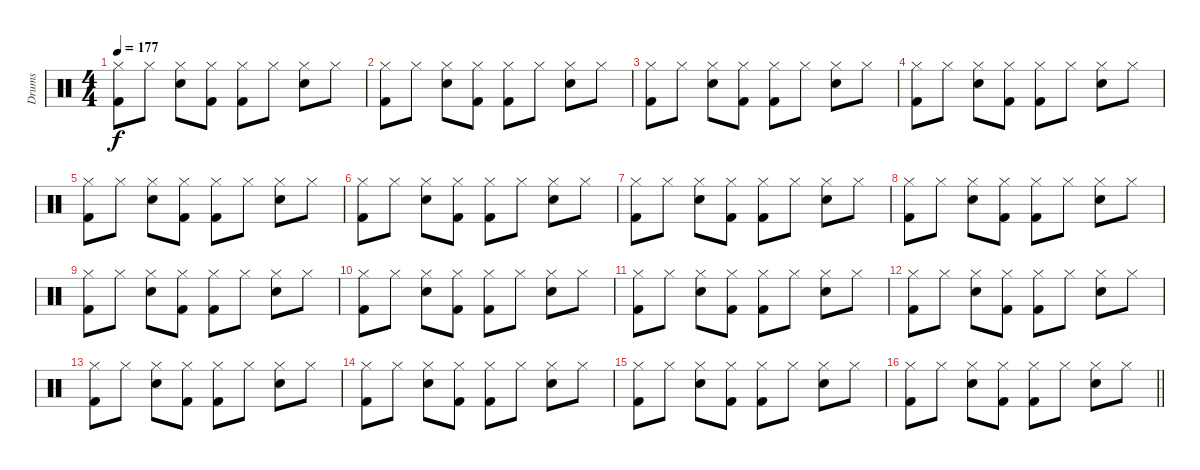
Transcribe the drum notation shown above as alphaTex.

\track ("Drums" "Drums") {instrument percussion}
\staff {score}
\articulation defaults
\ts (4 4)
\tempo 177
\clef neutral
\ks c
("Hi-Hat (closed)" "Kick (hit) 2").8{dy f} "Hi-Hat (closed)".8 ("Hi-Hat (closed)" "Snare (hit) 2").8 ("Hi-Hat (closed)" "Kick (hit) 2").8 ("Hi-Hat (closed)" "Kick (hit) 2").8 "Hi-Hat (closed)".8 ("Hi-Hat (closed)" "Snare (hit) 2").8 "Hi-Hat (closed)".8 |
("Hi-Hat (closed)" "Kick (hit) 2").8 "Hi-Hat (closed)".8 ("Hi-Hat (closed)" "Snare (hit) 2").8 ("Hi-Hat (closed)" "Kick (hit) 2").8 ("Hi-Hat (closed)" "Kick (hit) 2").8 "Hi-Hat (closed)".8 ("Hi-Hat (closed)" "Snare (hit) 2").8 "Hi-Hat (closed)".8 |
("Hi-Hat (closed)" "Kick (hit) 2").8 "Hi-Hat (closed)".8 ("Hi-Hat (closed)" "Snare (hit) 2").8 ("Hi-Hat (closed)" "Kick (hit) 2").8 ("Hi-Hat (closed)" "Kick (hit) 2").8 "Hi-Hat (closed)".8 ("Hi-Hat (closed)" "Snare (hit) 2").8 "Hi-Hat (closed)".8 |
("Hi-Hat (closed)" "Kick (hit) 2").8 "Hi-Hat (closed)".8 ("Hi-Hat (closed)" "Snare (hit) 2").8 ("Hi-Hat (closed)" "Kick (hit) 2").8 ("Hi-Hat (closed)" "Kick (hit) 2").8 "Hi-Hat (closed)".8 ("Hi-Hat (closed)" "Snare (hit) 2").8 "Hi-Hat (closed)".8 |
("Hi-Hat (closed)" "Kick (hit) 2").8 "Hi-Hat (closed)".8 ("Hi-Hat (closed)" "Snare (hit) 2").8 ("Hi-Hat (closed)" "Kick (hit) 2").8 ("Hi-Hat (closed)" "Kick (hit) 2").8 "Hi-Hat (closed)".8 ("Hi-Hat (closed)" "Snare (hit) 2").8 "Hi-Hat (closed)".8 |
("Hi-Hat (closed)" "Kick (hit) 2").8 "Hi-Hat (closed)".8 ("Hi-Hat (closed)" "Snare (hit) 2").8 ("Hi-Hat (closed)" "Kick (hit) 2").8 ("Hi-Hat (closed)" "Kick (hit) 2").8 "Hi-Hat (closed)".8 ("Hi-Hat (closed)" "Snare (hit) 2").8 "Hi-Hat (closed)".8 |
("Hi-Hat (closed)" "Kick (hit) 2").8 "Hi-Hat (closed)".8 ("Hi-Hat (closed)" "Snare (hit) 2").8 ("Hi-Hat (closed)" "Kick (hit) 2").8 ("Hi-Hat (closed)" "Kick (hit) 2").8 "Hi-Hat (closed)".8 ("Hi-Hat (closed)" "Snare (hit) 2").8 "Hi-Hat (closed)".8 |
("Hi-Hat (closed)" "Kick (hit) 2").8 "Hi-Hat (closed)".8 ("Hi-Hat (closed)" "Snare (hit) 2").8 ("Hi-Hat (closed)" "Kick (hit) 2").8 ("Hi-Hat (closed)" "Kick (hit) 2").8 "Hi-Hat (closed)".8 ("Hi-Hat (closed)" "Snare (hit) 2").8 "Hi-Hat (closed)".8 |
("Hi-Hat (closed)" "Kick (hit) 2").8 "Hi-Hat (closed)".8 ("Hi-Hat (closed)" "Snare (hit) 2").8 ("Hi-Hat (closed)" "Kick (hit) 2").8 ("Hi-Hat (closed)" "Kick (hit) 2").8 "Hi-Hat (closed)".8 ("Hi-Hat (closed)" "Snare (hit) 2").8 "Hi-Hat (closed)".8 |
("Hi-Hat (closed)" "Kick (hit) 2").8 "Hi-Hat (closed)".8 ("Hi-Hat (closed)" "Snare (hit) 2").8 ("Hi-Hat (closed)" "Kick (hit) 2").8 ("Hi-Hat (closed)" "Kick (hit) 2").8 "Hi-Hat (closed)".8 ("Hi-Hat (closed)" "Snare (hit) 2").8 "Hi-Hat (closed)".8 |
("Hi-Hat (closed)" "Kick (hit) 2").8 "Hi-Hat (closed)".8 ("Hi-Hat (closed)" "Snare (hit) 2").8 ("Hi-Hat (closed)" "Kick (hit) 2").8 ("Hi-Hat (closed)" "Kick (hit) 2").8 "Hi-Hat (closed)".8 ("Hi-Hat (closed)" "Snare (hit) 2").8 "Hi-Hat (closed)".8 |
("Hi-Hat (closed)" "Kick (hit) 2").8 "Hi-Hat (closed)".8 ("Hi-Hat (closed)" "Snare (hit) 2").8 ("Hi-Hat (closed)" "Kick (hit) 2").8 ("Hi-Hat (closed)" "Kick (hit) 2").8 "Hi-Hat (closed)".8 ("Hi-Hat (closed)" "Snare (hit) 2").8 "Hi-Hat (closed)".8 |
("Hi-Hat (closed)" "Kick (hit) 2").8 "Hi-Hat (closed)".8 ("Hi-Hat (closed)" "Snare (hit) 2").8 ("Hi-Hat (closed)" "Kick (hit) 2").8 ("Hi-Hat (closed)" "Kick (hit) 2").8 "Hi-Hat (closed)".8 ("Hi-Hat (closed)" "Snare (hit) 2").8 "Hi-Hat (closed)".8 |
("Hi-Hat (closed)" "Kick (hit) 2").8 "Hi-Hat (closed)".8 ("Hi-Hat (closed)" "Snare (hit) 2").8 ("Hi-Hat (closed)" "Kick (hit) 2").8 ("Hi-Hat (closed)" "Kick (hit) 2").8 "Hi-Hat (closed)".8 ("Hi-Hat (closed)" "Snare (hit) 2").8 "Hi-Hat (closed)".8 |
("Hi-Hat (closed)" "Kick (hit) 2").8 "Hi-Hat (closed)".8 ("Hi-Hat (closed)" "Snare (hit) 2").8 ("Hi-Hat (closed)" "Kick (hit) 2").8 ("Hi-Hat (closed)" "Kick (hit) 2").8 "Hi-Hat (closed)".8 ("Hi-Hat (closed)" "Snare (hit) 2").8 "Hi-Hat (closed)".8 |
\barLineRight lightlight
("Hi-Hat (closed)" "Kick (hit) 2").8 "Hi-Hat (closed)".8 ("Hi-Hat (closed)" "Snare (hit) 2").8 ("Hi-Hat (closed)" "Kick (hit) 2").8 ("Hi-Hat (closed)" "Kick (hit) 2").8 "Hi-Hat (closed)".8 ("Hi-Hat (closed)" "Snare (hit) 2").8 "Hi-Hat (closed)".8
